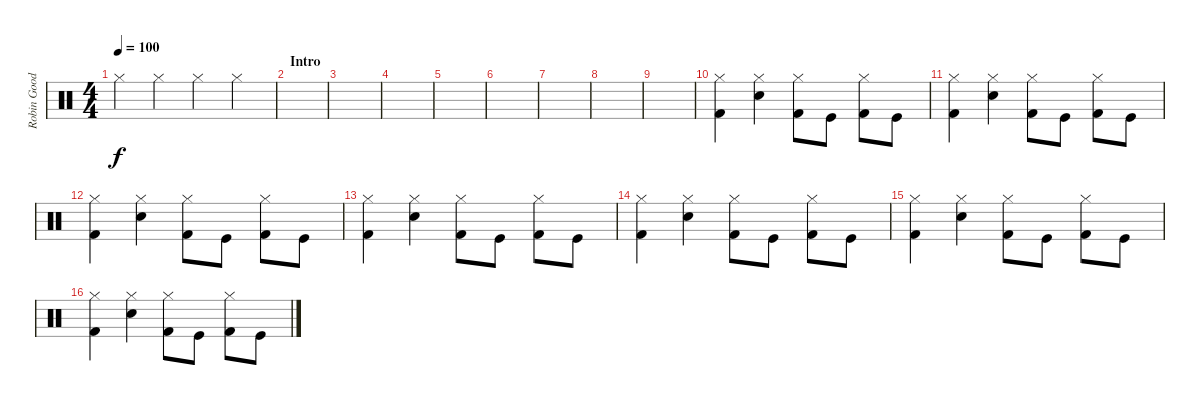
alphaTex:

\track ("Robin Goodridge - Drums " "Robin Good") {instrument percussion}
\staff {score}
\articulation defaults
\ts (4 4)
\tempo 100
\clef neutral
\ks c "Hi-Hat (closed)".4{dy f} "Hi-Hat (closed)".4 "Hi-Hat (closed)".4 "Hi-Hat (closed)".4
|
\section ("" "Intro")
|
|
|
|
|
|
|
|
("Hi-Hat (closed)" "Kick (hit) 2").4 ("Hi-Hat (closed)" "Snare (hit) 2").4 ("Hi-Hat (closed)" "Kick (hit) 2").8 "Kick (hit)".8 ("Hi-Hat (closed)" "Kick (hit) 2").8 "Kick (hit)".8 |
("Hi-Hat (closed)" "Kick (hit) 2").4 ("Hi-Hat (closed)" "Snare (hit) 2").4 ("Hi-Hat (closed)" "Kick (hit) 2").8 "Kick (hit)".8 ("Hi-Hat (closed)" "Kick (hit) 2").8 "Kick (hit)".8 |
("Hi-Hat (closed)" "Kick (hit) 2").4 ("Hi-Hat (closed)" "Snare (hit) 2").4 ("Hi-Hat (closed)" "Kick (hit) 2").8 "Kick (hit)".8 ("Hi-Hat (closed)" "Kick (hit) 2").8 "Kick (hit)".8 |
("Hi-Hat (closed)" "Kick (hit) 2").4 ("Hi-Hat (closed)" "Snare (hit) 2").4 ("Hi-Hat (closed)" "Kick (hit) 2").8 "Kick (hit)".8 ("Hi-Hat (closed)" "Kick (hit) 2").8 "Kick (hit)".8 |
("Hi-Hat (closed)" "Kick (hit) 2").4 ("Hi-Hat (closed)" "Snare (hit) 2").4 ("Hi-Hat (closed)" "Kick (hit) 2").8 "Kick (hit)".8 ("Hi-Hat (closed)" "Kick (hit) 2").8 "Kick (hit)".8 |
("Hi-Hat (closed)" "Kick (hit) 2").4 ("Hi-Hat (closed)" "Snare (hit) 2").4 ("Hi-Hat (closed)" "Kick (hit) 2").8 "Kick (hit)".8 ("Hi-Hat (closed)" "Kick (hit) 2").8 "Kick (hit)".8 |
("Hi-Hat (closed)" "Kick (hit) 2").4 ("Hi-Hat (closed)" "Snare (hit) 2").4 ("Hi-Hat (closed)" "Kick (hit) 2").8 "Kick (hit)".8 ("Hi-Hat (closed)" "Kick (hit) 2").8 "Kick (hit)".8
